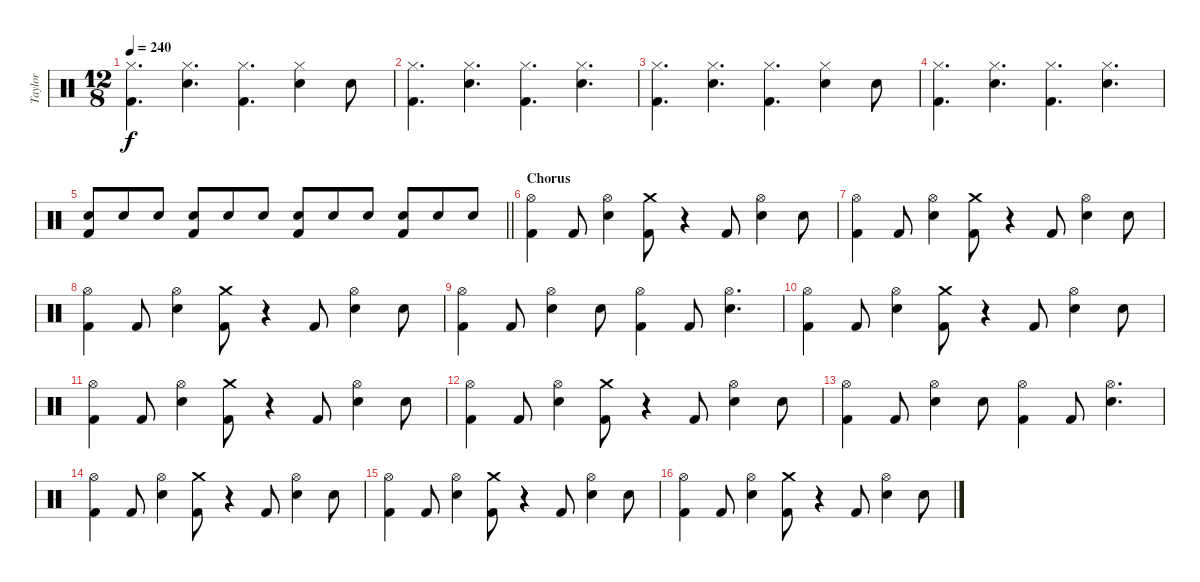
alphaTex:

\track ("Taylor" "Taylor") {instrument percussion}
\staff {score}
\articulation defaults
\ts (12 8)
\tempo 240
\clef neutral
\ks c
("Hi-Hat (closed)" "Kick (hit) 2").4{d dy f} ("Hi-Hat (closed)" "Snare (hit) 2").4{d} ("Hi-Hat (closed)" "Kick (hit) 2").4{d} ("Hi-Hat (closed)" "Snare (hit) 2").4 "Snare (hit) 2".8 |
("Hi-Hat (closed)" "Kick (hit) 2").4{d} ("Hi-Hat (closed)" "Snare (hit) 2").4{d} ("Hi-Hat (closed)" "Kick (hit) 2").4{d} ("Hi-Hat (closed)" "Snare (hit) 2").4{d} |
("Hi-Hat (closed)" "Kick (hit) 2").4{d} ("Hi-Hat (closed)" "Snare (hit) 2").4{d} ("Hi-Hat (closed)" "Kick (hit) 2").4{d} ("Hi-Hat (closed)" "Snare (hit) 2").4 "Snare (hit) 2".8 |
("Hi-Hat (closed)" "Kick (hit) 2").4{d} ("Hi-Hat (closed)" "Snare (hit) 2").4{d} ("Hi-Hat (closed)" "Kick (hit) 2").4{d} ("Hi-Hat (closed)" "Snare (hit) 2").4{d} |
\barLineRight lightlight
("Snare (hit) 2" "Kick (hit) 2").8 "Snare (hit) 2".8 "Snare (hit) 2".8 ("Snare (hit) 2" "Kick (hit) 2").8 "Snare (hit) 2".8 "Snare (hit) 2".8 ("Snare (hit) 2" "Kick (hit) 2").8 "Snare (hit) 2".8 "Snare (hit) 2".8 ("Snare (hit) 2" "Kick (hit) 2").8 "Snare (hit) 2".8 "Snare (hit) 2".8 |
\section ("" "Chorus")
("Hi-Hat (open)" "Kick (hit) 2").4 "Kick (hit) 2".8 ("Hi-Hat (open)" "Snare (hit) 2").4 ("Crash medium (hit)" "Kick (hit) 2").8 r.4 "Kick (hit) 2".8 ("Hi-Hat (open)" "Snare (hit) 2").4 "Snare (hit) 2".8 |
("Hi-Hat (open)" "Kick (hit) 2").4 "Kick (hit) 2".8 ("Hi-Hat (open)" "Snare (hit) 2").4 ("Crash medium (hit)" "Kick (hit) 2").8 r.4 "Kick (hit) 2".8 ("Hi-Hat (open)" "Snare (hit) 2").4 "Snare (hit) 2".8 |
("Hi-Hat (open)" "Kick (hit) 2").4 "Kick (hit) 2".8 ("Hi-Hat (open)" "Snare (hit) 2").4 ("Crash medium (hit)" "Kick (hit) 2").8 r.4 "Kick (hit) 2".8 ("Hi-Hat (open)" "Snare (hit) 2").4 "Snare (hit) 2".8 |
("Hi-Hat (open)" "Kick (hit) 2").4 "Kick (hit) 2".8 ("Hi-Hat (open)" "Snare (hit) 2").4 "Snare (hit) 2".8 ("Hi-Hat (open)" "Kick (hit) 2").4 "Kick (hit) 2".8 ("Hi-Hat (open)" "Snare (hit) 2").4{d} |
("Hi-Hat (open)" "Kick (hit) 2").4 "Kick (hit) 2".8 ("Hi-Hat (open)" "Snare (hit) 2").4 ("Crash medium (hit)" "Kick (hit) 2").8 r.4 "Kick (hit) 2".8 ("Hi-Hat (open)" "Snare (hit) 2").4 "Snare (hit) 2".8 |
("Hi-Hat (open)" "Kick (hit) 2").4 "Kick (hit) 2".8 ("Hi-Hat (open)" "Snare (hit) 2").4 ("Crash medium (hit)" "Kick (hit) 2").8 r.4 "Kick (hit) 2".8 ("Hi-Hat (open)" "Snare (hit) 2").4 "Snare (hit) 2".8 |
("Hi-Hat (open)" "Kick (hit) 2").4 "Kick (hit) 2".8 ("Hi-Hat (open)" "Snare (hit) 2").4 ("Crash medium (hit)" "Kick (hit) 2").8 r.4 "Kick (hit) 2".8 ("Hi-Hat (open)" "Snare (hit) 2").4 "Snare (hit) 2".8 |
("Hi-Hat (open)" "Kick (hit) 2").4 "Kick (hit) 2".8 ("Hi-Hat (open)" "Snare (hit) 2").4 "Snare (hit) 2".8 ("Hi-Hat (open)" "Kick (hit) 2").4 "Kick (hit) 2".8 ("Hi-Hat (open)" "Snare (hit) 2").4{d} |
("Hi-Hat (open)" "Kick (hit) 2").4 "Kick (hit) 2".8 ("Hi-Hat (open)" "Snare (hit) 2").4 ("Crash medium (hit)" "Kick (hit) 2").8 r.4 "Kick (hit) 2".8 ("Hi-Hat (open)" "Snare (hit) 2").4 "Snare (hit) 2".8 |
("Hi-Hat (open)" "Kick (hit) 2").4 "Kick (hit) 2".8 ("Hi-Hat (open)" "Snare (hit) 2").4 ("Crash medium (hit)" "Kick (hit) 2").8 r.4 "Kick (hit) 2".8 ("Hi-Hat (open)" "Snare (hit) 2").4 "Snare (hit) 2".8 |
("Hi-Hat (open)" "Kick (hit) 2").4 "Kick (hit) 2".8 ("Hi-Hat (open)" "Snare (hit) 2").4 ("Crash medium (hit)" "Kick (hit) 2").8 r.4 "Kick (hit) 2".8 ("Hi-Hat (open)" "Snare (hit) 2").4 "Snare (hit) 2".8
